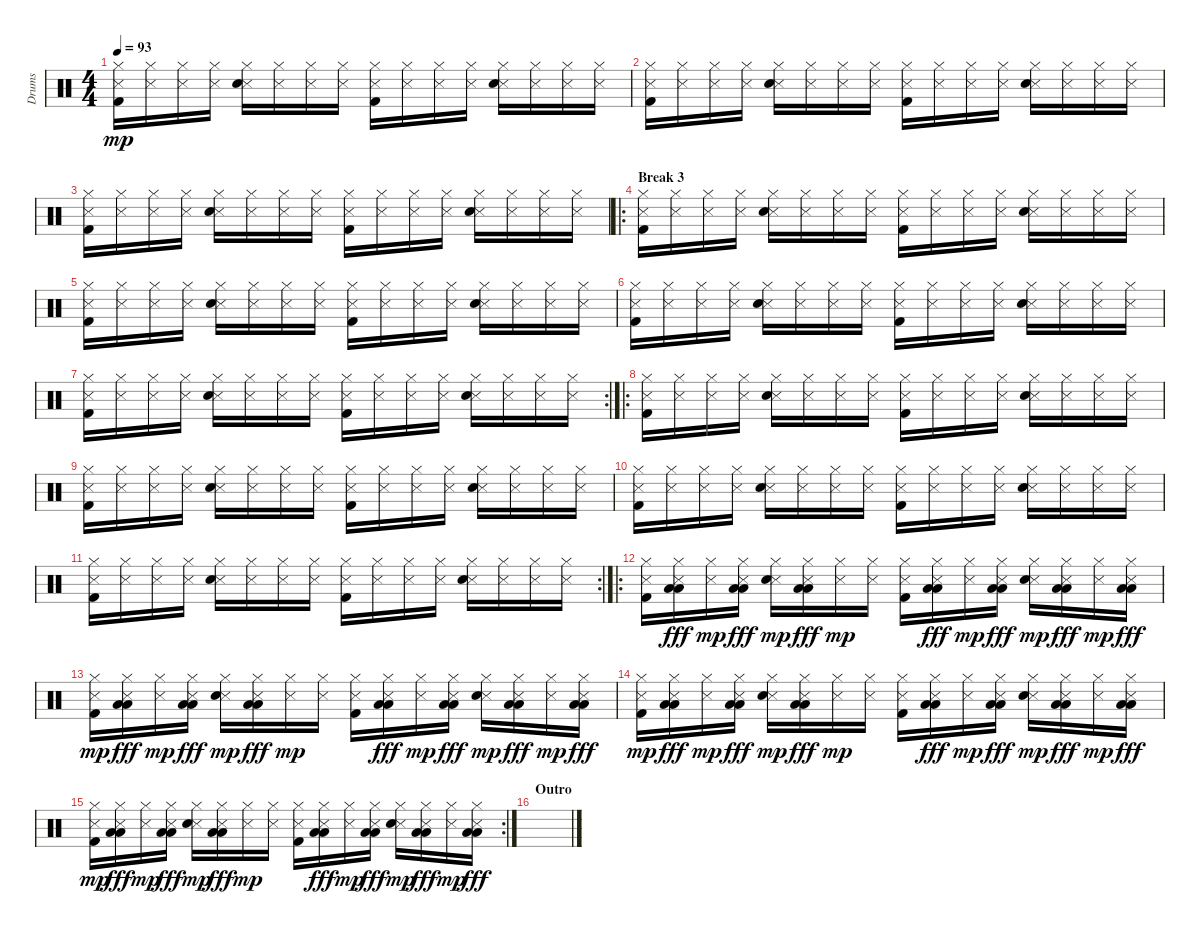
\track ("Drums" "Drums") {instrument percussion}
\staff {score}
\articulation defaults
\ts (4 4)
\tempo 93
\clef neutral
\ks c
("Metronome (hit)" "Hi-Hat (closed)" "Kick (hit) 2").16{dy mp} ("Metronome (hit)" "Hi-Hat (closed)").16 ("Metronome (hit)" "Hi-Hat (closed)").16 ("Metronome (hit)" "Hi-Hat (closed)").16 ("Metronome (hit)" "Hi-Hat (closed)" "Snare (hit) 2").16 ("Metronome (hit)" "Hi-Hat (closed)").16 ("Metronome (hit)" "Hi-Hat (closed)").16 ("Metronome (hit)" "Hi-Hat (closed)").16 ("Metronome (hit)" "Hi-Hat (closed)" "Kick (hit) 2").16 ("Metronome (hit)" "Hi-Hat (closed)").16 ("Metronome (hit)" "Hi-Hat (closed)").16 ("Metronome (hit)" "Hi-Hat (closed)").16 ("Metronome (hit)" "Hi-Hat (closed)" "Snare (hit) 2").16 ("Metronome (hit)" "Hi-Hat (closed)").16 ("Metronome (hit)" "Hi-Hat (closed)").16 ("Metronome (hit)" "Hi-Hat (closed)").16 |
("Metronome (hit)" "Hi-Hat (closed)" "Kick (hit) 2").16 ("Metronome (hit)" "Hi-Hat (closed)").16 ("Metronome (hit)" "Hi-Hat (closed)").16 ("Metronome (hit)" "Hi-Hat (closed)").16 ("Metronome (hit)" "Hi-Hat (closed)" "Snare (hit) 2").16 ("Metronome (hit)" "Hi-Hat (closed)").16 ("Metronome (hit)" "Hi-Hat (closed)").16 ("Metronome (hit)" "Hi-Hat (closed)").16 ("Metronome (hit)" "Hi-Hat (closed)" "Kick (hit) 2").16 ("Metronome (hit)" "Hi-Hat (closed)").16 ("Metronome (hit)" "Hi-Hat (closed)").16 ("Metronome (hit)" "Hi-Hat (closed)").16 ("Metronome (hit)" "Hi-Hat (closed)" "Snare (hit) 2").16 ("Metronome (hit)" "Hi-Hat (closed)").16 ("Metronome (hit)" "Hi-Hat (closed)").16 ("Metronome (hit)" "Hi-Hat (closed)").16 |
("Metronome (hit)" "Hi-Hat (closed)" "Kick (hit) 2").16 ("Metronome (hit)" "Hi-Hat (closed)").16 ("Metronome (hit)" "Hi-Hat (closed)").16 ("Metronome (hit)" "Hi-Hat (closed)").16 ("Metronome (hit)" "Hi-Hat (closed)" "Snare (hit) 2").16 ("Metronome (hit)" "Hi-Hat (closed)").16 ("Metronome (hit)" "Hi-Hat (closed)").16 ("Metronome (hit)" "Hi-Hat (closed)").16 ("Metronome (hit)" "Hi-Hat (closed)" "Kick (hit) 2").16 ("Metronome (hit)" "Hi-Hat (closed)").16 ("Metronome (hit)" "Hi-Hat (closed)").16 ("Metronome (hit)" "Hi-Hat (closed)").16 ("Metronome (hit)" "Hi-Hat (closed)" "Snare (hit) 2").16 ("Metronome (hit)" "Hi-Hat (closed)").16 ("Metronome (hit)" "Hi-Hat (closed)").16 ("Metronome (hit)" "Hi-Hat (closed)").16 |
\ro
\section ("" "Break 3")
("Metronome (hit)" "Hi-Hat (closed)" "Kick (hit) 2").16 ("Metronome (hit)" "Hi-Hat (closed)").16 ("Metronome (hit)" "Hi-Hat (closed)").16 ("Metronome (hit)" "Hi-Hat (closed)").16 ("Metronome (hit)" "Hi-Hat (closed)" "Snare (hit) 2").16 ("Metronome (hit)" "Hi-Hat (closed)").16 ("Metronome (hit)" "Hi-Hat (closed)").16 ("Metronome (hit)" "Hi-Hat (closed)").16 ("Metronome (hit)" "Hi-Hat (closed)" "Kick (hit) 2").16 ("Metronome (hit)" "Hi-Hat (closed)").16 ("Metronome (hit)" "Hi-Hat (closed)").16 ("Metronome (hit)" "Hi-Hat (closed)").16 ("Metronome (hit)" "Hi-Hat (closed)" "Snare (hit) 2").16 ("Metronome (hit)" "Hi-Hat (closed)").16 ("Metronome (hit)" "Hi-Hat (closed)").16 ("Metronome (hit)" "Hi-Hat (closed)").16 |
("Metronome (hit)" "Hi-Hat (closed)" "Kick (hit) 2").16 ("Metronome (hit)" "Hi-Hat (closed)").16 ("Metronome (hit)" "Hi-Hat (closed)").16 ("Metronome (hit)" "Hi-Hat (closed)").16 ("Metronome (hit)" "Hi-Hat (closed)" "Snare (hit) 2").16 ("Metronome (hit)" "Hi-Hat (closed)").16 ("Metronome (hit)" "Hi-Hat (closed)").16 ("Metronome (hit)" "Hi-Hat (closed)").16 ("Metronome (hit)" "Hi-Hat (closed)" "Kick (hit) 2").16 ("Metronome (hit)" "Hi-Hat (closed)").16 ("Metronome (hit)" "Hi-Hat (closed)").16 ("Metronome (hit)" "Hi-Hat (closed)").16 ("Metronome (hit)" "Hi-Hat (closed)" "Snare (hit) 2").16 ("Metronome (hit)" "Hi-Hat (closed)").16 ("Metronome (hit)" "Hi-Hat (closed)").16 ("Metronome (hit)" "Hi-Hat (closed)").16 |
("Metronome (hit)" "Hi-Hat (closed)" "Kick (hit) 2").16 ("Metronome (hit)" "Hi-Hat (closed)").16 ("Metronome (hit)" "Hi-Hat (closed)").16 ("Metronome (hit)" "Hi-Hat (closed)").16 ("Metronome (hit)" "Hi-Hat (closed)" "Snare (hit) 2").16 ("Metronome (hit)" "Hi-Hat (closed)").16 ("Metronome (hit)" "Hi-Hat (closed)").16 ("Metronome (hit)" "Hi-Hat (closed)").16 ("Metronome (hit)" "Hi-Hat (closed)" "Kick (hit) 2").16 ("Metronome (hit)" "Hi-Hat (closed)").16 ("Metronome (hit)" "Hi-Hat (closed)").16 ("Metronome (hit)" "Hi-Hat (closed)").16 ("Metronome (hit)" "Hi-Hat (closed)" "Snare (hit) 2").16 ("Metronome (hit)" "Hi-Hat (closed)").16 ("Metronome (hit)" "Hi-Hat (closed)").16 ("Metronome (hit)" "Hi-Hat (closed)").16 |
\rc 2
("Metronome (hit)" "Hi-Hat (closed)" "Kick (hit) 2").16 ("Metronome (hit)" "Hi-Hat (closed)").16 ("Metronome (hit)" "Hi-Hat (closed)").16 ("Metronome (hit)" "Hi-Hat (closed)").16 ("Metronome (hit)" "Hi-Hat (closed)" "Snare (hit) 2").16 ("Metronome (hit)" "Hi-Hat (closed)").16 ("Metronome (hit)" "Hi-Hat (closed)").16 ("Metronome (hit)" "Hi-Hat (closed)").16 ("Metronome (hit)" "Hi-Hat (closed)" "Kick (hit) 2").16 ("Metronome (hit)" "Hi-Hat (closed)").16 ("Metronome (hit)" "Hi-Hat (closed)").16 ("Metronome (hit)" "Hi-Hat (closed)").16 ("Metronome (hit)" "Hi-Hat (closed)" "Snare (hit) 2").16 ("Metronome (hit)" "Hi-Hat (closed)").16 ("Metronome (hit)" "Hi-Hat (closed)").16 ("Metronome (hit)" "Hi-Hat (closed)").16 |
\ro
("Metronome (hit)" "Hi-Hat (closed)" "Kick (hit) 2").16 ("Metronome (hit)" "Hi-Hat (closed)").16 ("Metronome (hit)" "Hi-Hat (closed)").16 ("Metronome (hit)" "Hi-Hat (closed)").16 ("Metronome (hit)" "Hi-Hat (closed)" "Snare (hit) 2").16 ("Metronome (hit)" "Hi-Hat (closed)").16 ("Metronome (hit)" "Hi-Hat (closed)").16 ("Metronome (hit)" "Hi-Hat (closed)").16 ("Metronome (hit)" "Hi-Hat (closed)" "Kick (hit) 2").16 ("Metronome (hit)" "Hi-Hat (closed)").16 ("Metronome (hit)" "Hi-Hat (closed)").16 ("Metronome (hit)" "Hi-Hat (closed)").16 ("Metronome (hit)" "Hi-Hat (closed)" "Snare (hit) 2").16 ("Metronome (hit)" "Hi-Hat (closed)").16 ("Metronome (hit)" "Hi-Hat (closed)").16 ("Metronome (hit)" "Hi-Hat (closed)").16 |
("Metronome (hit)" "Hi-Hat (closed)" "Kick (hit) 2").16 ("Metronome (hit)" "Hi-Hat (closed)").16 ("Metronome (hit)" "Hi-Hat (closed)").16 ("Metronome (hit)" "Hi-Hat (closed)").16 ("Metronome (hit)" "Hi-Hat (closed)" "Snare (hit) 2").16 ("Metronome (hit)" "Hi-Hat (closed)").16 ("Metronome (hit)" "Hi-Hat (closed)").16 ("Metronome (hit)" "Hi-Hat (closed)").16 ("Metronome (hit)" "Hi-Hat (closed)" "Kick (hit) 2").16 ("Metronome (hit)" "Hi-Hat (closed)").16 ("Metronome (hit)" "Hi-Hat (closed)").16 ("Metronome (hit)" "Hi-Hat (closed)").16 ("Metronome (hit)" "Hi-Hat (closed)" "Snare (hit) 2").16 ("Metronome (hit)" "Hi-Hat (closed)").16 ("Metronome (hit)" "Hi-Hat (closed)").16 ("Metronome (hit)" "Hi-Hat (closed)").16 |
("Metronome (hit)" "Hi-Hat (closed)" "Kick (hit) 2").16 ("Metronome (hit)" "Hi-Hat (closed)").16 ("Metronome (hit)" "Hi-Hat (closed)").16 ("Metronome (hit)" "Hi-Hat (closed)").16 ("Metronome (hit)" "Hi-Hat (closed)" "Snare (hit) 2").16 ("Metronome (hit)" "Hi-Hat (closed)").16 ("Metronome (hit)" "Hi-Hat (closed)").16 ("Metronome (hit)" "Hi-Hat (closed)").16 ("Metronome (hit)" "Hi-Hat (closed)" "Kick (hit) 2").16 ("Metronome (hit)" "Hi-Hat (closed)").16 ("Metronome (hit)" "Hi-Hat (closed)").16 ("Metronome (hit)" "Hi-Hat (closed)").16 ("Metronome (hit)" "Hi-Hat (closed)" "Snare (hit) 2").16 ("Metronome (hit)" "Hi-Hat (closed)").16 ("Metronome (hit)" "Hi-Hat (closed)").16 ("Metronome (hit)" "Hi-Hat (closed)").16 |
\rc 2
("Metronome (hit)" "Hi-Hat (closed)" "Kick (hit) 2").16 ("Metronome (hit)" "Hi-Hat (closed)").16 ("Metronome (hit)" "Hi-Hat (closed)").16 ("Metronome (hit)" "Hi-Hat (closed)").16 ("Metronome (hit)" "Hi-Hat (closed)" "Snare (hit) 2").16 ("Metronome (hit)" "Hi-Hat (closed)").16 ("Metronome (hit)" "Hi-Hat (closed)").16 ("Metronome (hit)" "Hi-Hat (closed)").16 ("Metronome (hit)" "Hi-Hat (closed)" "Kick (hit) 2").16 ("Metronome (hit)" "Hi-Hat (closed)").16 ("Metronome (hit)" "Hi-Hat (closed)").16 ("Metronome (hit)" "Hi-Hat (closed)").16 ("Metronome (hit)" "Hi-Hat (closed)" "Snare (hit) 2").16 ("Metronome (hit)" "Hi-Hat (closed)").16 ("Metronome (hit)" "Hi-Hat (closed)").16 ("Metronome (hit)" "Hi-Hat (closed)").16 |
\ro
("Metronome (hit)" "Hi-Hat (closed)" "Kick (hit) 2").16 ("Metronome (hit)" "Hi-Hat (closed)" "Low Floor Tom (hit)" "Low Floor Tom (hit)").16{dy fff} ("Metronome (hit)" "Hi-Hat (closed)").16{dy mp} ("Metronome (hit)" "Hi-Hat (closed)" "Low Floor Tom (hit)" "Low Floor Tom (hit)").16{dy fff} ("Metronome (hit)" "Hi-Hat (closed)" "Snare (hit) 2").16{dy mp} ("Metronome (hit)" "Hi-Hat (closed)" "Low Floor Tom (hit)" "Low Floor Tom (hit)").16{dy fff} ("Metronome (hit)" "Hi-Hat (closed)").16{dy mp} ("Metronome (hit)" "Hi-Hat (closed)").16 ("Metronome (hit)" "Hi-Hat (closed)" "Kick (hit) 2").16 ("Metronome (hit)" "Hi-Hat (closed)" "Low Floor Tom (hit)" "Low Floor Tom (hit)").16{dy fff} ("Metronome (hit)" "Hi-Hat (closed)").16{dy mp} ("Metronome (hit)" "Hi-Hat (closed)" "Low Floor Tom (hit)" "Low Floor Tom (hit)").16{dy fff} ("Metronome (hit)" "Hi-Hat (closed)" "Snare (hit) 2").16{dy mp} ("Metronome (hit)" "Hi-Hat (closed)" "Low Floor Tom (hit)" "Low Floor Tom (hit)").16{dy fff} ("Metronome (hit)" "Hi-Hat (closed)").16{dy mp} ("Metronome (hit)" "Hi-Hat (closed)" "Low Floor Tom (hit)" "Low Floor Tom (hit)").16{dy fff} |
("Metronome (hit)" "Hi-Hat (closed)" "Kick (hit) 2").16{dy mp} ("Metronome (hit)" "Hi-Hat (closed)" "Low Floor Tom (hit)" "Low Floor Tom (hit)").16{dy fff} ("Metronome (hit)" "Hi-Hat (closed)").16{dy mp} ("Metronome (hit)" "Hi-Hat (closed)" "Low Floor Tom (hit)" "Low Floor Tom (hit)").16{dy fff} ("Metronome (hit)" "Hi-Hat (closed)" "Snare (hit) 2").16{dy mp} ("Metronome (hit)" "Hi-Hat (closed)" "Low Floor Tom (hit)" "Low Floor Tom (hit)").16{dy fff} ("Metronome (hit)" "Hi-Hat (closed)").16{dy mp} ("Metronome (hit)" "Hi-Hat (closed)").16 ("Metronome (hit)" "Hi-Hat (closed)" "Kick (hit) 2").16 ("Metronome (hit)" "Hi-Hat (closed)" "Low Floor Tom (hit)" "Low Floor Tom (hit)").16{dy fff} ("Metronome (hit)" "Hi-Hat (closed)").16{dy mp} ("Metronome (hit)" "Hi-Hat (closed)" "Low Floor Tom (hit)" "Low Floor Tom (hit)").16{dy fff} ("Metronome (hit)" "Hi-Hat (closed)" "Snare (hit) 2").16{dy mp} ("Metronome (hit)" "Hi-Hat (closed)" "Low Floor Tom (hit)" "Low Floor Tom (hit)").16{dy fff} ("Metronome (hit)" "Hi-Hat (closed)").16{dy mp} ("Metronome (hit)" "Hi-Hat (closed)" "Low Floor Tom (hit)" "Low Floor Tom (hit)").16{dy fff} |
("Metronome (hit)" "Hi-Hat (closed)" "Kick (hit) 2").16{dy mp} ("Metronome (hit)" "Hi-Hat (closed)" "Low Floor Tom (hit)" "Low Floor Tom (hit)").16{dy fff} ("Metronome (hit)" "Hi-Hat (closed)").16{dy mp} ("Metronome (hit)" "Hi-Hat (closed)" "Low Floor Tom (hit)" "Low Floor Tom (hit)").16{dy fff} ("Metronome (hit)" "Hi-Hat (closed)" "Snare (hit) 2").16{dy mp} ("Metronome (hit)" "Hi-Hat (closed)" "Low Floor Tom (hit)" "Low Floor Tom (hit)").16{dy fff} ("Metronome (hit)" "Hi-Hat (closed)").16{dy mp} ("Metronome (hit)" "Hi-Hat (closed)").16 ("Metronome (hit)" "Hi-Hat (closed)" "Kick (hit) 2").16 ("Metronome (hit)" "Hi-Hat (closed)" "Low Floor Tom (hit)" "Low Floor Tom (hit)").16{dy fff} ("Metronome (hit)" "Hi-Hat (closed)").16{dy mp} ("Metronome (hit)" "Hi-Hat (closed)" "Low Floor Tom (hit)" "Low Floor Tom (hit)").16{dy fff} ("Metronome (hit)" "Hi-Hat (closed)" "Snare (hit) 2").16{dy mp} ("Metronome (hit)" "Hi-Hat (closed)" "Low Floor Tom (hit)" "Low Floor Tom (hit)").16{dy fff} ("Metronome (hit)" "Hi-Hat (closed)").16{dy mp} ("Metronome (hit)" "Hi-Hat (closed)" "Low Floor Tom (hit)" "Low Floor Tom (hit)").16{dy fff} |
\rc 2
("Metronome (hit)" "Hi-Hat (closed)" "Kick (hit) 2").16{dy mp} ("Metronome (hit)" "Hi-Hat (closed)" "Low Floor Tom (hit)" "Low Floor Tom (hit)").16{dy fff} ("Metronome (hit)" "Hi-Hat (closed)").16{dy mp} ("Metronome (hit)" "Hi-Hat (closed)" "Low Floor Tom (hit)" "Low Floor Tom (hit)").16{dy fff} ("Metronome (hit)" "Hi-Hat (closed)" "Snare (hit) 2").16{dy mp} ("Metronome (hit)" "Hi-Hat (closed)" "Low Floor Tom (hit)" "Low Floor Tom (hit)").16{dy fff} ("Metronome (hit)" "Hi-Hat (closed)").16{dy mp} ("Metronome (hit)" "Hi-Hat (closed)").16 ("Metronome (hit)" "Hi-Hat (closed)" "Kick (hit) 2").16 ("Metronome (hit)" "Hi-Hat (closed)" "Low Floor Tom (hit)" "Low Floor Tom (hit)").16{dy fff} ("Metronome (hit)" "Hi-Hat (closed)").16{dy mp} ("Metronome (hit)" "Hi-Hat (closed)" "Low Floor Tom (hit)" "Low Floor Tom (hit)").16{dy fff} ("Metronome (hit)" "Hi-Hat (closed)" "Snare (hit) 2").16{dy mp} ("Metronome (hit)" "Hi-Hat (closed)" "Low Floor Tom (hit)" "Low Floor Tom (hit)").16{dy fff} ("Metronome (hit)" "Hi-Hat (closed)").16{dy mp} ("Metronome (hit)" "Hi-Hat (closed)" "Low Floor Tom (hit)" "Low Floor Tom (hit)").16{dy fff} |
\section ("" "Outro")
